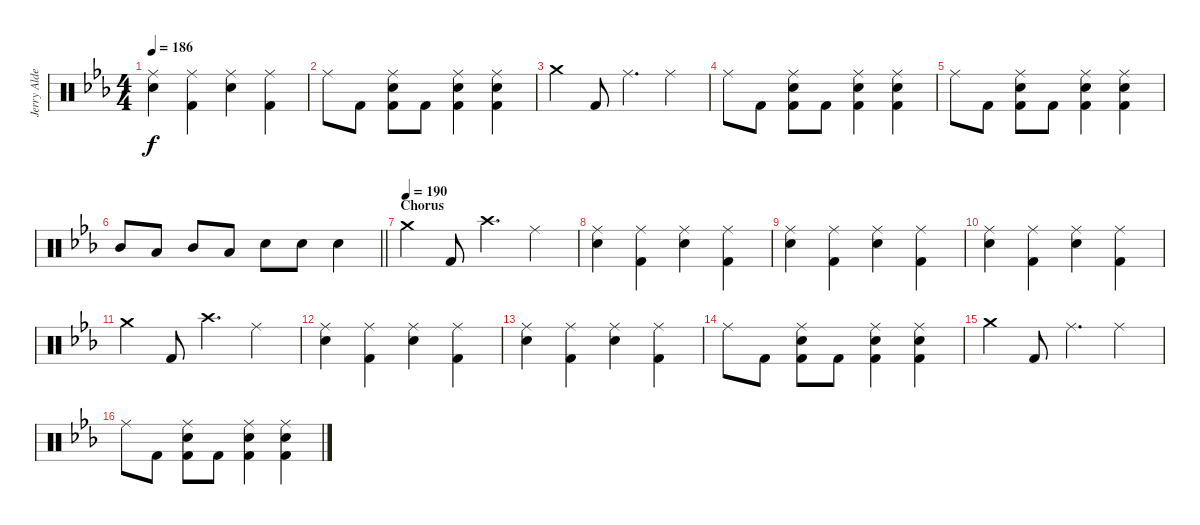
\track ("Jerry Alder - Drums" "Jerry Alde") {instrument percussion}
\staff {score}
\articulation defaults
\ts (4 4)
\tempo 186
\clef neutral
\ks eb
("Ride (middle)" "Snare (hit) 2").4{dy f} ("Ride (middle)" "Kick (hit) 2").4 ("Ride (middle)" "Snare (hit) 2").4 ("Ride (middle)" "Kick (hit) 2").4 |
"Ride (middle)".8 "Kick (hit) 2".8 ("Ride (middle)" "Snare (hit) 2" "Kick (hit) 2").8 "Kick (hit) 2".8 ("Ride (middle)" "Snare (hit) 2" "Kick (hit) 2").4 ("Ride (middle)" "Snare (hit) 2" "Kick (hit) 2").4 |
"Crash medium (hit)".4 "Kick (hit) 2".8 "Ride (middle)".4{d} "Ride (middle)".4 |
"Ride (middle)".8 "Kick (hit) 2".8 ("Ride (middle)" "Snare (hit) 2" "Kick (hit) 2").8 "Kick (hit) 2".8 ("Ride (middle)" "Snare (hit) 2" "Kick (hit) 2").4 ("Ride (middle)" "Snare (hit) 2" "Kick (hit) 2").4 |
"Ride (middle)".8 "Kick (hit) 2".8 ("Ride (middle)" "Snare (hit) 2" "Kick (hit) 2").8 "Kick (hit) 2".8 ("Ride (middle)" "Snare (hit) 2" "Kick (hit) 2").4 ("Ride (middle)" "Snare (hit) 2" "Kick (hit) 2").4 |
\barLineRight lightlight "Mid Tom (hit)".8 "Low Tom (hit)".8 "Mid Tom (hit)".8 "Low Tom (hit)".8 "Snare (hit) 2".8 "Snare (hit) 2".8 "Snare (hit) 2".4
|
\section ("" "Chorus")
\tempo (190)
"Crash medium (hit)".4 "Kick (hit) 2".8 "Crash high (hit)".4{d} "Ride (middle)".4 |
("Ride (middle)" "Snare (hit) 2").4 ("Ride (middle)" "Kick (hit) 2").4 ("Ride (middle)" "Snare (hit) 2").4 ("Ride (middle)" "Kick (hit) 2").4 |
("Ride (middle)" "Snare (hit) 2").4 ("Ride (middle)" "Kick (hit) 2").4 ("Ride (middle)" "Snare (hit) 2").4 ("Ride (middle)" "Kick (hit) 2").4 |
("Ride (middle)" "Snare (hit) 2").4 ("Ride (middle)" "Kick (hit) 2").4 ("Ride (middle)" "Snare (hit) 2").4 ("Ride (middle)" "Kick (hit) 2").4 |
"Crash medium (hit)".4 "Kick (hit) 2".8 "Crash high (hit)".4{d} "Ride (middle)".4 |
("Ride (middle)" "Snare (hit) 2").4 ("Ride (middle)" "Kick (hit) 2").4 ("Ride (middle)" "Snare (hit) 2").4 ("Ride (middle)" "Kick (hit) 2").4 |
("Ride (middle)" "Snare (hit) 2").4 ("Ride (middle)" "Kick (hit) 2").4 ("Ride (middle)" "Snare (hit) 2").4 ("Ride (middle)" "Kick (hit) 2").4 |
"Ride (middle)".8 "Kick (hit) 2".8 ("Ride (middle)" "Snare (hit) 2" "Kick (hit) 2").8 "Kick (hit) 2".8 ("Ride (middle)" "Snare (hit) 2" "Kick (hit) 2").4 ("Ride (middle)" "Snare (hit) 2" "Kick (hit) 2").4 |
"Crash medium (hit)".4 "Kick (hit) 2".8 "Ride (middle)".4{d} "Ride (middle)".4 |
"Ride (middle)".8 "Kick (hit) 2".8 ("Ride (middle)" "Snare (hit) 2" "Kick (hit) 2").8 "Kick (hit) 2".8 ("Ride (middle)" "Snare (hit) 2" "Kick (hit) 2").4 ("Ride (middle)" "Snare (hit) 2" "Kick (hit) 2").4
